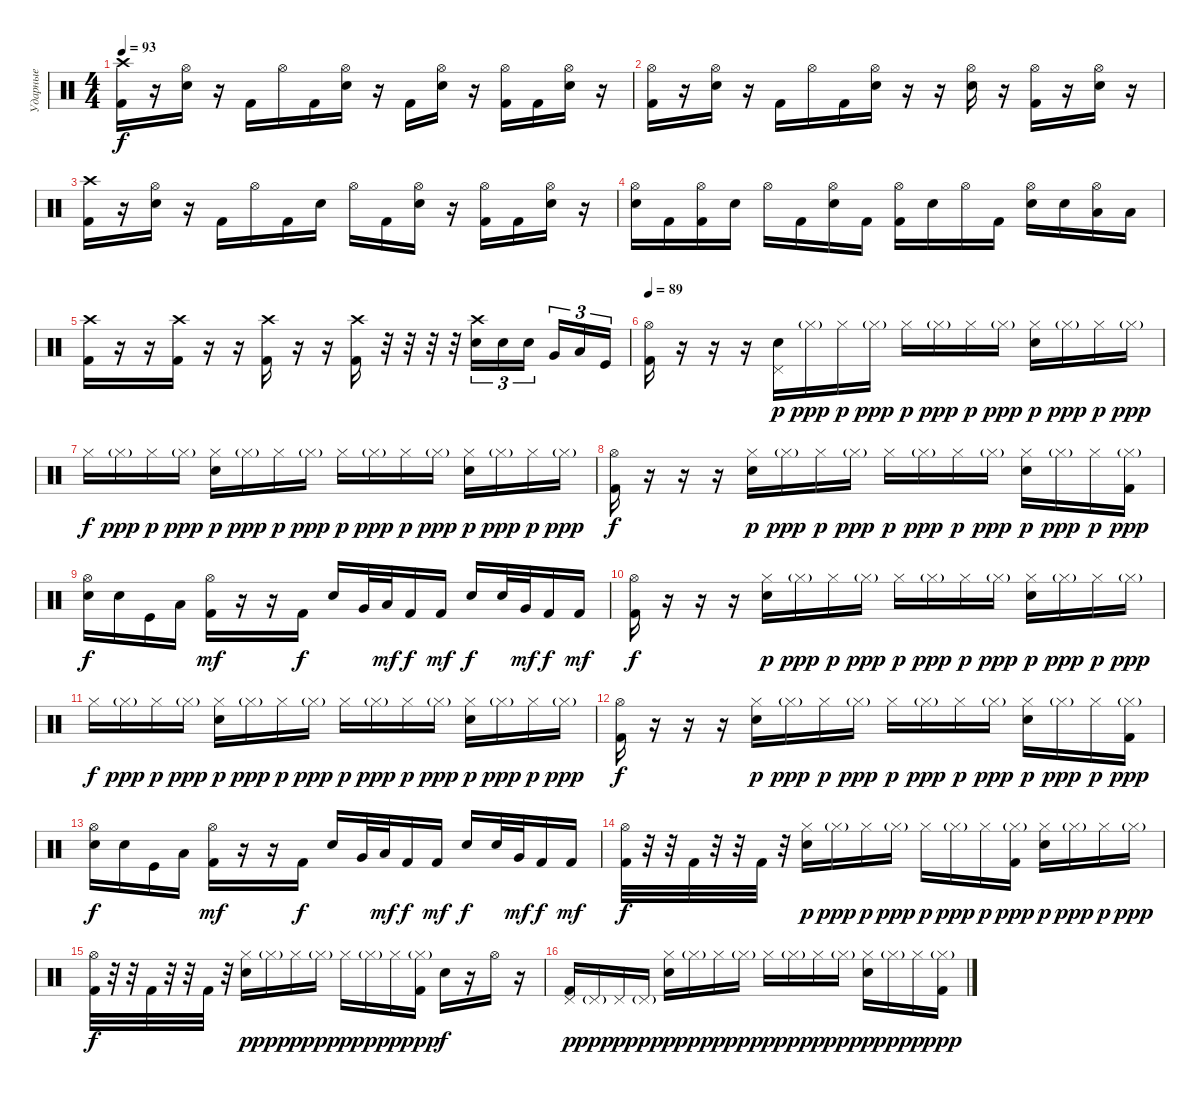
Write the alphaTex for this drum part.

\track ("Ударные" "Ударные") {instrument percussion}
\staff {score}
\articulation defaults
\ts (4 4)
\tempo 93
\clef neutral
\ks c
("Crash high (hit)" "Kick (hit) 2").16{dy f} r.16 ("Hi-Hat (open)" "Snare (hit) 2").16 r.16 "Kick (hit) 2".16 "Hi-Hat (open)".16 "Kick (hit) 2".16 ("Hi-Hat (open)" "Snare (hit) 2").16 r.16 "Kick (hit) 2".16 ("Hi-Hat (open)" "Snare (hit) 2").16 r.16 ("Hi-Hat (open)" "Kick (hit) 2").16 "Kick (hit) 2".16 ("Hi-Hat (open)" "Snare (hit) 2").16 r.16 |
("Hi-Hat (open)" "Kick (hit) 2").16 r.16 ("Hi-Hat (open)" "Snare (hit) 2").16 r.16 "Kick (hit) 2".16 "Hi-Hat (open)".16 "Kick (hit) 2".16 ("Hi-Hat (open)" "Snare (hit) 2").16 r.16 r.16 ("Hi-Hat (open)" "Snare (hit) 2").16 r.16 ("Hi-Hat (open)" "Kick (hit) 2").16 r.16 ("Hi-Hat (open)" "Snare (hit) 2").16 r.16 |
("Crash high (hit)" "Kick (hit) 2").16 r.16 ("Hi-Hat (open)" "Snare (hit) 2").16 r.16 "Kick (hit) 2".16 "Hi-Hat (open)".16 "Kick (hit) 2".16 "Snare (hit) 2".16 "Hi-Hat (open)".16 "Kick (hit) 2".16 ("Hi-Hat (open)" "Snare (hit) 2").16 r.16 ("Hi-Hat (open)" "Kick (hit) 2").16 "Kick (hit) 2".16 ("Hi-Hat (open)" "Snare (hit) 2").16 r.16 |
("Hi-Hat (open)" "Snare (hit) 2").16 "Kick (hit) 2".16 ("Hi-Hat (open)" "Kick (hit) 2").16 "Snare (hit) 2".16 "Hi-Hat (open)".16 "Kick (hit) 2".16 ("Hi-Hat (open)" "Snare (hit) 2").16 "Kick (hit) 2".16 ("Hi-Hat (open)" "Kick (hit) 2").16 "Snare (hit) 2".16 "Hi-Hat (open)".16 "Kick (hit) 2".16 ("Hi-Hat (open)" "Snare (hit) 2").16 "Snare (hit) 2".16 ("Hi-Hat (open)" "Low Floor Tom (hit)").16 "Low Floor Tom (hit)".16 |
("Crash high (hit)" "Kick (hit) 2").16 r.16 r.16 ("Crash high (hit)" "Kick (hit) 2").16 r.16 r.16 ("Crash high (hit)" "Kick (hit) 2").16 r.16 r.16 ("Crash high (hit)" "Kick (hit) 2").16 r.32 r.32 r.32 r.32 ("Crash high (hit)" "Snare (hit) 2").16{tu (3 2)} "Snare (hit) 2".16{tu (3 2)} "Snare (hit) 2".16{tu (3 2) beam splitsecondary} "Very Low Tom (hit)".16{tu (3 2)} "Low Floor Tom (hit)".16{tu (3 2)} "Kick (hit)".16{tu (3 2)} |
\tempo 89
("Hi-Hat (open)" "Kick (hit) 2").16 r.16 r.16 r.16 ("Pedal Hi-Hat (hit)" "Snare (hit) 2").16{dy p} "Hi-Hat (closed)"{g}.16{dy ppp} "Hi-Hat (closed)".16{dy p} "Hi-Hat (closed)"{g}.16{dy ppp} "Hi-Hat (closed)".16{dy p} "Hi-Hat (closed)"{g}.16{dy ppp} "Hi-Hat (closed)".16{dy p} "Hi-Hat (closed)"{g}.16{dy ppp} ("Hi-Hat (closed)" "Snare (hit) 2").16{dy p} "Hi-Hat (closed)"{g}.16{dy ppp} "Hi-Hat (closed)".16{dy p} "Hi-Hat (closed)"{g}.16{dy ppp} |
"Hi-Hat (closed)".16{dy f} "Hi-Hat (closed)"{g}.16{dy ppp} "Hi-Hat (closed)".16{dy p} "Hi-Hat (closed)"{g}.16{dy ppp} ("Hi-Hat (closed)" "Snare (hit) 2").16{dy p} "Hi-Hat (closed)"{g}.16{dy ppp} "Hi-Hat (closed)".16{dy p} "Hi-Hat (closed)"{g}.16{dy ppp} "Hi-Hat (closed)".16{dy p} "Hi-Hat (closed)"{g}.16{dy ppp} "Hi-Hat (closed)".16{dy p} "Hi-Hat (closed)"{g}.16{dy ppp} ("Hi-Hat (closed)" "Snare (hit) 2").16{dy p} "Hi-Hat (closed)"{g}.16{dy ppp} "Hi-Hat (closed)".16{dy p} "Hi-Hat (closed)"{g}.16{dy ppp} |
("Hi-Hat (open)" "Kick (hit) 2").16{dy f} r.16 r.16 r.16 ("Hi-Hat (closed)" "Snare (hit) 2").16{dy p} "Hi-Hat (closed)"{g}.16{dy ppp} "Hi-Hat (closed)".16{dy p} "Hi-Hat (closed)"{g}.16{dy ppp} "Hi-Hat (closed)".16{dy p} "Hi-Hat (closed)"{g}.16{dy ppp} "Hi-Hat (closed)".16{dy p} "Hi-Hat (closed)"{g}.16{dy ppp} ("Hi-Hat (closed)" "Snare (hit) 2").16{dy p} "Hi-Hat (closed)"{g}.16{dy ppp} "Hi-Hat (closed)".16{dy p} ("Hi-Hat (closed)"{g} "Kick (hit) 2").16{dy ppp} |
("Hi-Hat (open)" "Snare (hit) 2").16{dy f} "Snare (hit) 2".16 "Kick (hit)".16 "Low Floor Tom (hit)".16 ("Hi-Hat (open)" "Kick (hit) 2").16{dy mf} r.16 r.16 "Kick (hit) 2".16{dy f} "Snare (hit) 2".16 "Very Low Tom (hit)".32 "Low Floor Tom (hit)".32{dy mf} "Kick (hit) 2".16{dy f} "Kick (hit) 2".16{dy mf} "Snare (hit) 2".16{dy f} "Snare (hit) 2".32 "Very Low Tom (hit)".32{dy mf} "Kick (hit) 2".16{dy f} "Kick (hit) 2".16{dy mf} |
("Hi-Hat (open)" "Kick (hit) 2").16{dy f} r.16 r.16 r.16 ("Hi-Hat (closed)" "Snare (hit) 2").16{dy p} "Hi-Hat (closed)"{g}.16{dy ppp} "Hi-Hat (closed)".16{dy p} "Hi-Hat (closed)"{g}.16{dy ppp} "Hi-Hat (closed)".16{dy p} "Hi-Hat (closed)"{g}.16{dy ppp} "Hi-Hat (closed)".16{dy p} "Hi-Hat (closed)"{g}.16{dy ppp} ("Hi-Hat (closed)" "Snare (hit) 2").16{dy p} "Hi-Hat (closed)"{g}.16{dy ppp} "Hi-Hat (closed)".16{dy p} "Hi-Hat (closed)"{g}.16{dy ppp} |
"Hi-Hat (closed)".16{dy f} "Hi-Hat (closed)"{g}.16{dy ppp} "Hi-Hat (closed)".16{dy p} "Hi-Hat (closed)"{g}.16{dy ppp} ("Hi-Hat (closed)" "Snare (hit) 2").16{dy p} "Hi-Hat (closed)"{g}.16{dy ppp} "Hi-Hat (closed)".16{dy p} "Hi-Hat (closed)"{g}.16{dy ppp} "Hi-Hat (closed)".16{dy p} "Hi-Hat (closed)"{g}.16{dy ppp} "Hi-Hat (closed)".16{dy p} "Hi-Hat (closed)"{g}.16{dy ppp} ("Hi-Hat (closed)" "Snare (hit) 2").16{dy p} "Hi-Hat (closed)"{g}.16{dy ppp} "Hi-Hat (closed)".16{dy p} "Hi-Hat (closed)"{g}.16{dy ppp} |
("Hi-Hat (open)" "Kick (hit) 2").16{dy f} r.16 r.16 r.16 ("Hi-Hat (closed)" "Snare (hit) 2").16{dy p} "Hi-Hat (closed)"{g}.16{dy ppp} "Hi-Hat (closed)".16{dy p} "Hi-Hat (closed)"{g}.16{dy ppp} "Hi-Hat (closed)".16{dy p} "Hi-Hat (closed)"{g}.16{dy ppp} "Hi-Hat (closed)".16{dy p} "Hi-Hat (closed)"{g}.16{dy ppp} ("Hi-Hat (closed)" "Snare (hit) 2").16{dy p} "Hi-Hat (closed)"{g}.16{dy ppp} "Hi-Hat (closed)".16{dy p} ("Hi-Hat (closed)"{g} "Kick (hit) 2").16{dy ppp} |
("Hi-Hat (open)" "Snare (hit) 2").16{dy f} "Snare (hit) 2".16 "Kick (hit)".16 "Low Floor Tom (hit)".16 ("Hi-Hat (open)" "Kick (hit) 2").16{dy mf} r.16 r.16 "Kick (hit) 2".16{dy f} "Snare (hit) 2".16 "Very Low Tom (hit)".32 "Low Floor Tom (hit)".32{dy mf} "Kick (hit) 2".16{dy f} "Kick (hit) 2".16{dy mf} "Snare (hit) 2".16{dy f} "Snare (hit) 2".32 "Very Low Tom (hit)".32{dy mf} "Kick (hit) 2".16{dy f} "Kick (hit) 2".16{dy mf} |
("Hi-Hat (open)" "Kick (hit) 2").32{dy f} r.32 r.32 "Kick (hit) 2".32 r.32 r.32 "Kick (hit) 2".32 r.32 ("Hi-Hat (closed)" "Snare (hit) 2").16{dy p} "Hi-Hat (closed)"{g}.16{dy ppp} "Hi-Hat (closed)".16{dy p} "Hi-Hat (closed)"{g}.16{dy ppp} "Hi-Hat (closed)".16{dy p} "Hi-Hat (closed)"{g}.16{dy ppp} "Hi-Hat (closed)".16{dy p} ("Hi-Hat (closed)"{g} "Kick (hit) 2").16{dy ppp} ("Hi-Hat (closed)" "Snare (hit) 2").16{dy p} "Hi-Hat (closed)"{g}.16{dy ppp} "Hi-Hat (closed)".16{dy p} "Hi-Hat (closed)"{g}.16{dy ppp} |
("Hi-Hat (open)" "Kick (hit) 2").32{dy f} r.32 r.32 "Kick (hit) 2".32 r.32 r.32 "Kick (hit) 2".32 r.32 ("Hi-Hat (closed)" "Snare (hit) 2").16{dy p} "Hi-Hat (closed)"{g}.16{dy ppp} "Hi-Hat (closed)".16{dy p} "Hi-Hat (closed)"{g}.16{dy ppp} "Hi-Hat (closed)".16{dy p} "Hi-Hat (closed)"{g}.16{dy ppp} "Hi-Hat (closed)".16{dy p} ("Hi-Hat (closed)"{g} "Kick (hit) 2").16{dy ppp} "Snare (hit) 2".16{dy f} r.16 "Hi-Hat (open)".16 r.16 |
("Pedal Hi-Hat (hit)" "Kick (hit) 2").16{dy p} "Pedal Hi-Hat (hit)"{g}.16{dy ppp} "Pedal Hi-Hat (hit)".16{dy p} "Pedal Hi-Hat (hit)"{g}.16{dy ppp} ("Hi-Hat (closed)" "Snare (hit) 2").16{dy p} "Hi-Hat (closed)"{g}.16{dy ppp} "Hi-Hat (closed)".16{dy p} "Hi-Hat (closed)"{g}.16{dy ppp} "Hi-Hat (closed)".16{dy p} "Hi-Hat (closed)"{g}.16{dy ppp} "Hi-Hat (closed)".16{dy p} "Hi-Hat (closed)"{g}.16{dy ppp} ("Hi-Hat (closed)" "Snare (hit) 2").16{dy p} "Hi-Hat (closed)"{g}.16{dy ppp} "Hi-Hat (closed)".16{dy p} ("Hi-Hat (closed)"{g} "Kick (hit) 2").16{dy ppp}
